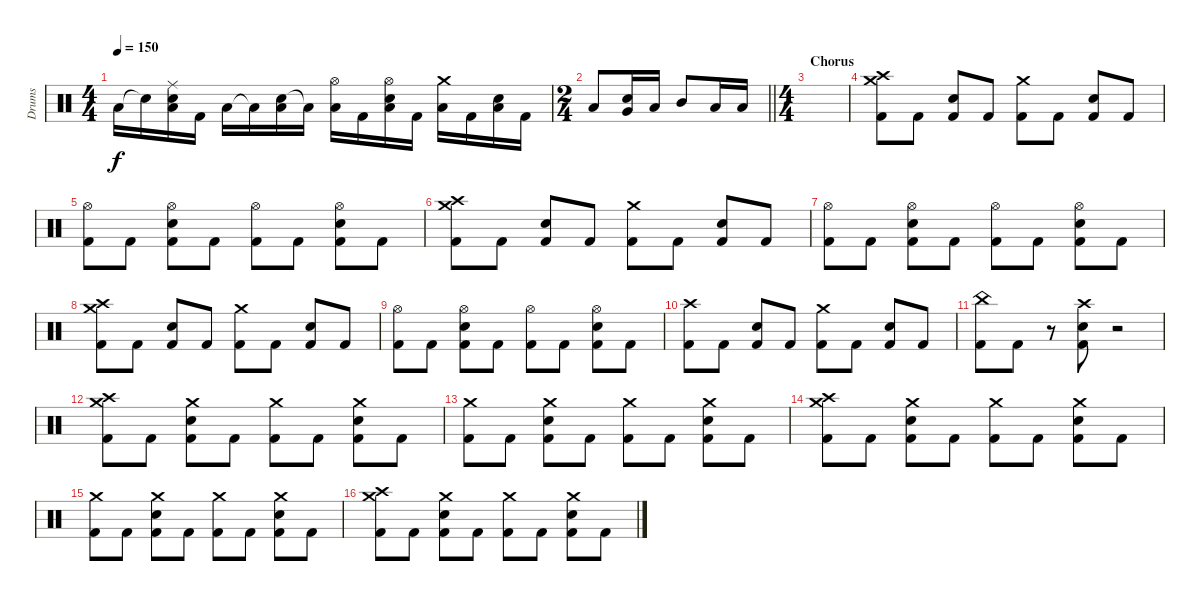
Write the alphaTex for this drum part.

\track ("Drums" "Drums") {instrument percussion}
\staff {score}
\articulation defaults
\ts (4 4)
\tempo 150
\clef neutral
\ks c "Low Floor Tom (hit)".16{dy f} "Electric Snare (hit)"{t}.16
("Ride (middle)" "Electric Snare (hit)" "Low Floor Tom (hit)").16 "Kick (hit) 2".16 "Low Floor Tom (hit)".16 "Low Floor Tom (hit)"{t}.16 ("Electric Snare (hit)" "Low Floor Tom (hit)").16 "Low Floor Tom (hit)"{t}.16 ("Hi-Hat (open)" "Low Floor Tom (hit)").16 "Kick (hit) 2".16 ("Hi-Hat (open)" "Electric Snare (hit)" "Low Floor Tom (hit)").16 "Kick (hit) 2".16 ("Crash medium (hit)" "Low Floor Tom (hit)").16 "Kick (hit) 2".16 ("Electric Snare (hit)" "Low Floor Tom (hit)").16 "Kick (hit) 2".16 |
\ts (2 4)
\barLineRight lightlight "Low Floor Tom (hit)".8
("Electric Snare (hit)" "Very Low Tom (hit)").16 "Low Tom (hit)".16 "Mid Tom (hit)".8 "Low Floor Tom (hit)".16 "Low Floor Tom (hit)".16 |
\ts (4 4)
\section ("" "Chorus")
|
("Crash medium (hit)" "Crash high (hit)" "Kick (hit) 2").8 "Kick (hit) 2".8 ("Electric Snare (hit)" "Kick (hit) 2").8 "Kick (hit) 2".8 ("Crash medium (hit)" "Kick (hit) 2").8 "Kick (hit) 2".8 ("Electric Snare (hit)" "Kick (hit) 2").8 "Kick (hit) 2".8 |
("Hi-Hat (open)" "Kick (hit) 2").8 "Kick (hit) 2".8 ("Hi-Hat (open)" "Electric Snare (hit)" "Kick (hit) 2").8 "Kick (hit) 2".8 ("Hi-Hat (open)" "Kick (hit) 2").8 "Kick (hit) 2".8 ("Hi-Hat (open)" "Electric Snare (hit)" "Kick (hit) 2").8 "Kick (hit) 2".8 |
("Crash medium (hit)" "Crash high (hit)" "Kick (hit) 2").8 "Kick (hit) 2".8 ("Electric Snare (hit)" "Kick (hit) 2").8 "Kick (hit) 2".8 ("Crash medium (hit)" "Kick (hit) 2").8 "Kick (hit) 2".8 ("Electric Snare (hit)" "Kick (hit) 2").8 "Kick (hit) 2".8 |
("Hi-Hat (open)" "Kick (hit) 2").8 "Kick (hit) 2".8 ("Hi-Hat (open)" "Electric Snare (hit)" "Kick (hit) 2").8 "Kick (hit) 2".8 ("Hi-Hat (open)" "Kick (hit) 2").8 "Kick (hit) 2".8 ("Hi-Hat (open)" "Electric Snare (hit)" "Kick (hit) 2").8 "Kick (hit) 2".8 |
("Crash medium (hit)" "Crash high (hit)" "Kick (hit) 2").8 "Kick (hit) 2".8 ("Electric Snare (hit)" "Kick (hit) 2").8 "Kick (hit) 2".8 ("Crash medium (hit)" "Kick (hit) 2").8 "Kick (hit) 2".8 ("Electric Snare (hit)" "Kick (hit) 2").8 "Kick (hit) 2".8 |
("Hi-Hat (open)" "Kick (hit) 2").8 "Kick (hit) 2".8 ("Hi-Hat (open)" "Electric Snare (hit)" "Kick (hit) 2").8 "Kick (hit) 2".8 ("Hi-Hat (open)" "Kick (hit) 2").8 "Kick (hit) 2".8 ("Hi-Hat (open)" "Electric Snare (hit)" "Kick (hit) 2").8 "Kick (hit) 2".8 |
("Crash high (hit)" "Kick (hit) 2").8 "Kick (hit) 2".8 ("Electric Snare (hit)" "Kick (hit) 2").8 "Kick (hit) 2".8 ("Crash medium (hit)" "Kick (hit) 2").8 "Kick (hit) 2".8 ("Electric Snare (hit)" "Kick (hit) 2").8 "Kick (hit) 2".8 |
("China (hit)" "Kick (hit) 2").8 "Kick (hit) 2".8 r.8 ("Crash high (hit)" "Electric Snare (hit)" "Kick (hit) 2").8 r.2 |
("Crash medium (hit)" "Crash high (hit)" "Kick (hit) 2").8 "Kick (hit) 2".8 ("Crash medium (hit)" "Electric Snare (hit)" "Kick (hit) 2").8 "Kick (hit) 2".8 ("Crash medium (hit)" "Kick (hit) 2").8 "Kick (hit) 2".8 ("Crash medium (hit)" "Electric Snare (hit)" "Kick (hit) 2").8 "Kick (hit) 2".8 |
("Crash medium (hit)" "Kick (hit) 2").8 "Kick (hit) 2".8 ("Crash medium (hit)" "Electric Snare (hit)" "Kick (hit) 2").8 "Kick (hit) 2".8 ("Crash medium (hit)" "Kick (hit) 2").8 "Kick (hit) 2".8 ("Crash medium (hit)" "Electric Snare (hit)" "Kick (hit) 2").8 "Kick (hit) 2".8 |
("Crash medium (hit)" "Crash high (hit)" "Kick (hit) 2").8 "Kick (hit) 2".8 ("Crash medium (hit)" "Electric Snare (hit)" "Kick (hit) 2").8 "Kick (hit) 2".8 ("Crash medium (hit)" "Kick (hit) 2").8 "Kick (hit) 2".8 ("Crash medium (hit)" "Electric Snare (hit)" "Kick (hit) 2").8 "Kick (hit) 2".8 |
("Crash medium (hit)" "Kick (hit) 2").8 "Kick (hit) 2".8 ("Crash medium (hit)" "Electric Snare (hit)" "Kick (hit) 2").8 "Kick (hit) 2".8 ("Crash medium (hit)" "Kick (hit) 2").8 "Kick (hit) 2".8 ("Crash medium (hit)" "Electric Snare (hit)" "Kick (hit) 2").8 "Kick (hit) 2".8 |
("Crash medium (hit)" "Crash high (hit)" "Kick (hit) 2").8 "Kick (hit) 2".8 ("Crash medium (hit)" "Electric Snare (hit)" "Kick (hit) 2").8 "Kick (hit) 2".8 ("Crash medium (hit)" "Kick (hit) 2").8 "Kick (hit) 2".8 ("Crash medium (hit)" "Electric Snare (hit)" "Kick (hit) 2").8 "Kick (hit) 2".8
